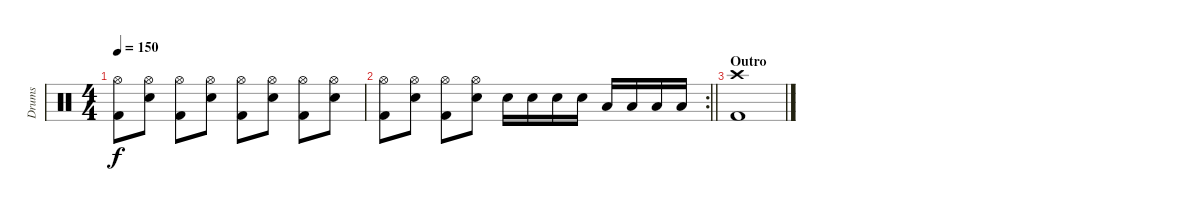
\track ("Drums" "Drums") {instrument percussion}
\staff {score}
\articulation defaults
\ts (4 4)
\tempo 150
\clef neutral
\ks c
("Hi-Hat (open)" "Kick (hit) 2").8{dy f} ("Hi-Hat (open)" "Snare (hit) 2").8 ("Hi-Hat (open)" "Kick (hit) 2").8 ("Hi-Hat (open)" "Snare (hit) 2").8 ("Hi-Hat (open)" "Kick (hit) 2").8 ("Hi-Hat (open)" "Snare (hit) 2").8 ("Hi-Hat (open)" "Kick (hit) 2").8 ("Hi-Hat (open)" "Snare (hit) 2").8 |
\rc 2
\barLineRight lightlight
("Hi-Hat (open)" "Kick (hit) 2").8 ("Hi-Hat (open)" "Snare (hit) 2").8 ("Hi-Hat (open)" "Kick (hit) 2").8 ("Hi-Hat (open)" "Snare (hit) 2").8 "Snare (hit) 2".16 "Snare (hit) 2".16 "Snare (hit) 2".16 "Snare (hit) 2".16 "Low Tom (hit)".16 "Low Tom (hit)".16 "Low Floor Tom (hit)".16 "Low Floor Tom (hit)".16 |
\section ("" "Outro")
("Crash high (hit)" "Kick (hit) 2").1
